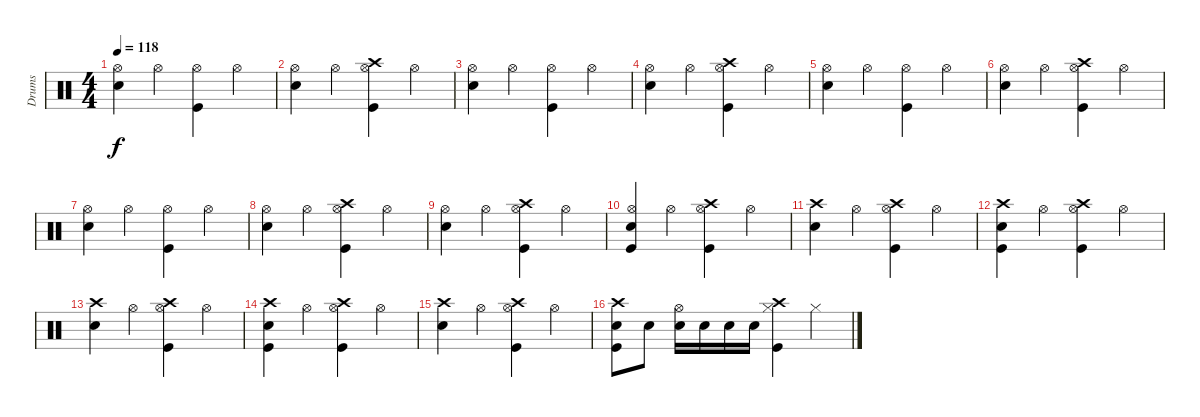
\track ("Drums" "Drums") {instrument percussion}
\staff {score}
\articulation defaults
\ts (4 4)
\tempo 118
\clef neutral
\ks c
("Snare (hit) 2" "Hi-Hat (open)").4{dy f} "Hi-Hat (open)".4 ("Kick (hit)" "Hi-Hat (open)").4 "Hi-Hat (open)".4 |
("Snare (hit) 2" "Hi-Hat (open)").4 "Hi-Hat (open)".4 ("Kick (hit)" "Hi-Hat (open)" "Crash high (hit)").4 "Hi-Hat (open)".4 |
("Snare (hit) 2" "Hi-Hat (open)").4 "Hi-Hat (open)".4 ("Kick (hit)" "Hi-Hat (open)").4 "Hi-Hat (open)".4 |
("Snare (hit) 2" "Hi-Hat (open)").4 "Hi-Hat (open)".4 ("Kick (hit)" "Hi-Hat (open)" "Crash high (hit)").4 "Hi-Hat (open)".4 |
("Snare (hit) 2" "Hi-Hat (open)").4 "Hi-Hat (open)".4 ("Kick (hit)" "Hi-Hat (open)").4 "Hi-Hat (open)".4 |
("Snare (hit) 2" "Hi-Hat (open)").4 "Hi-Hat (open)".4 ("Kick (hit)" "Hi-Hat (open)" "Crash high (hit)").4 "Hi-Hat (open)".4 |
("Snare (hit) 2" "Hi-Hat (open)").4 "Hi-Hat (open)".4 ("Kick (hit)" "Hi-Hat (open)").4 "Hi-Hat (open)".4 |
("Snare (hit) 2" "Hi-Hat (open)").4 "Hi-Hat (open)".4 ("Kick (hit)" "Hi-Hat (open)" "Crash high (hit)").4 "Hi-Hat (open)".4 |
("Snare (hit) 2" "Hi-Hat (open)").4 "Hi-Hat (open)".4 ("Kick (hit)" "Hi-Hat (open)" "Crash high (hit)").4 "Hi-Hat (open)".4 |
("Kick (hit)" "Snare (hit) 2" "Hi-Hat (open)").4 "Hi-Hat (open)".4 ("Kick (hit)" "Hi-Hat (open)" "Crash high (hit)").4 "Hi-Hat (open)".4 |
("Snare (hit) 2" "Crash high (hit)").4 "Hi-Hat (open)".4 ("Kick (hit)" "Hi-Hat (open)" "Crash high (hit)").4 "Hi-Hat (open)".4 |
("Kick (hit)" "Snare (hit) 2" "Crash high (hit)").4 "Hi-Hat (open)".4 ("Kick (hit)" "Hi-Hat (open)" "Crash high (hit)").4 "Hi-Hat (open)".4 |
("Snare (hit) 2" "Crash high (hit)").4 "Hi-Hat (open)".4 ("Kick (hit)" "Hi-Hat (open)" "Crash high (hit)").4 "Hi-Hat (open)".4 |
("Kick (hit)" "Snare (hit) 2" "Crash high (hit)").4 "Hi-Hat (open)".4 ("Kick (hit)" "Hi-Hat (open)" "Crash high (hit)").4 "Hi-Hat (open)".4 |
("Snare (hit) 2" "Crash high (hit)").4 "Hi-Hat (open)".4 ("Kick (hit)" "Hi-Hat (open)" "Crash high (hit)").4 "Hi-Hat (open)".4 |
("Kick (hit)" "Snare (hit) 2" "Crash high (hit)").8 "Snare (hit) 2".8 ("Snare (hit) 2" "Hi-Hat (open)").16 "Snare (hit) 2".16 "Snare (hit) 2".16 "Snare (hit) 2".16 ("Kick (hit)" "Hi-Hat (closed)" "Crash high (hit)").4 "Hi-Hat (closed)".4
